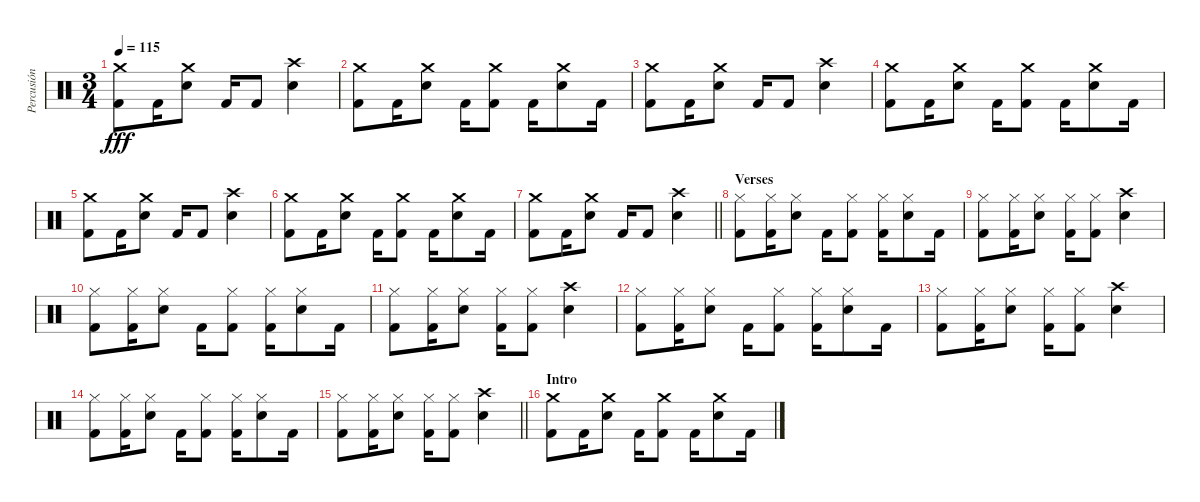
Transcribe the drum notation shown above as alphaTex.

\track ("Percusión" "Percusión") {instrument percussion}
\staff {score}
\articulation defaults
\ts (3 4)
\tempo 115
\clef neutral
\ks c
("Crash medium (hit)" "Kick (hit) 2").8{dy fff} "Kick (hit) 2".16 ("Crash medium (hit)" "Electric Snare (hit)").8 "Kick (hit) 2".16 "Kick (hit) 2".8 ("Crash high (hit)" "Electric Snare (hit)").4 |
("Crash medium (hit)" "Kick (hit) 2").8 "Kick (hit) 2".16 ("Crash medium (hit)" "Electric Snare (hit)").8 "Kick (hit) 2".16 ("Crash medium (hit)" "Kick (hit) 2").8 "Kick (hit) 2".16 ("Crash medium (hit)" "Electric Snare (hit)").8 "Kick (hit) 2".16 |
("Crash medium (hit)" "Kick (hit) 2").8 "Kick (hit) 2".16 ("Crash medium (hit)" "Electric Snare (hit)").8 "Kick (hit) 2".16 "Kick (hit) 2".8 ("Crash high (hit)" "Electric Snare (hit)").4 |
("Crash medium (hit)" "Kick (hit) 2").8 "Kick (hit) 2".16 ("Crash medium (hit)" "Electric Snare (hit)").8 "Kick (hit) 2".16 ("Crash medium (hit)" "Kick (hit) 2").8 "Kick (hit) 2".16 ("Crash medium (hit)" "Electric Snare (hit)").8 "Kick (hit) 2".16 |
("Crash medium (hit)" "Kick (hit) 2").8 "Kick (hit) 2".16 ("Crash medium (hit)" "Electric Snare (hit)").8 "Kick (hit) 2".16 "Kick (hit) 2".8 ("Crash high (hit)" "Electric Snare (hit)").4 |
("Crash medium (hit)" "Kick (hit) 2").8 "Kick (hit) 2".16 ("Crash medium (hit)" "Electric Snare (hit)").8 "Kick (hit) 2".16 ("Crash medium (hit)" "Kick (hit) 2").8 "Kick (hit) 2".16 ("Crash medium (hit)" "Electric Snare (hit)").8 "Kick (hit) 2".16 |
\barLineRight lightlight
("Crash medium (hit)" "Kick (hit) 2").8 "Kick (hit) 2".16 ("Crash medium (hit)" "Electric Snare (hit)").8 "Kick (hit) 2".16 "Kick (hit) 2".8 ("Crash high (hit)" "Electric Snare (hit)").4 |
\section ("" "Verses")
("Hi-Hat (closed)" "Kick (hit) 2").8 ("Hi-Hat (closed)" "Kick (hit) 2").16 ("Hi-Hat (closed)" "Electric Snare (hit)").8 "Kick (hit) 2".16 ("Hi-Hat (closed)" "Kick (hit) 2").8 ("Hi-Hat (closed)" "Kick (hit) 2").16 ("Hi-Hat (closed)" "Electric Snare (hit)").8 "Kick (hit) 2".16 |
("Hi-Hat (closed)" "Kick (hit) 2").8 ("Hi-Hat (closed)" "Kick (hit) 2").16 ("Hi-Hat (closed)" "Electric Snare (hit)").8 ("Hi-Hat (closed)" "Kick (hit) 2").16 ("Hi-Hat (closed)" "Kick (hit) 2").8 ("Crash high (hit)" "Electric Snare (hit)").4 |
("Hi-Hat (closed)" "Kick (hit) 2").8 ("Hi-Hat (closed)" "Kick (hit) 2").16 ("Hi-Hat (closed)" "Electric Snare (hit)").8 "Kick (hit) 2".16 ("Hi-Hat (closed)" "Kick (hit) 2").8 ("Hi-Hat (closed)" "Kick (hit) 2").16 ("Hi-Hat (closed)" "Electric Snare (hit)").8 "Kick (hit) 2".16 |
("Hi-Hat (closed)" "Kick (hit) 2").8 ("Hi-Hat (closed)" "Kick (hit) 2").16 ("Hi-Hat (closed)" "Electric Snare (hit)").8 ("Hi-Hat (closed)" "Kick (hit) 2").16 ("Hi-Hat (closed)" "Kick (hit) 2").8 ("Crash high (hit)" "Electric Snare (hit)").4 |
("Hi-Hat (closed)" "Kick (hit) 2").8 ("Hi-Hat (closed)" "Kick (hit) 2").16 ("Hi-Hat (closed)" "Electric Snare (hit)").8 "Kick (hit) 2".16 ("Hi-Hat (closed)" "Kick (hit) 2").8 ("Hi-Hat (closed)" "Kick (hit) 2").16 ("Hi-Hat (closed)" "Electric Snare (hit)").8 "Kick (hit) 2".16 |
("Hi-Hat (closed)" "Kick (hit) 2").8 ("Hi-Hat (closed)" "Kick (hit) 2").16 ("Hi-Hat (closed)" "Electric Snare (hit)").8 ("Hi-Hat (closed)" "Kick (hit) 2").16 ("Hi-Hat (closed)" "Kick (hit) 2").8 ("Crash high (hit)" "Electric Snare (hit)").4 |
("Hi-Hat (closed)" "Kick (hit) 2").8 ("Hi-Hat (closed)" "Kick (hit) 2").16 ("Hi-Hat (closed)" "Electric Snare (hit)").8 "Kick (hit) 2".16 ("Hi-Hat (closed)" "Kick (hit) 2").8 ("Hi-Hat (closed)" "Kick (hit) 2").16 ("Hi-Hat (closed)" "Electric Snare (hit)").8 "Kick (hit) 2".16 |
\barLineRight lightlight
("Hi-Hat (closed)" "Kick (hit) 2").8 ("Hi-Hat (closed)" "Kick (hit) 2").16 ("Hi-Hat (closed)" "Electric Snare (hit)").8 ("Hi-Hat (closed)" "Kick (hit) 2").16 ("Hi-Hat (closed)" "Kick (hit) 2").8 ("Crash high (hit)" "Electric Snare (hit)").4 |
\section ("" "Intro")
("Crash medium (hit)" "Kick (hit) 2").8 "Kick (hit) 2".16 ("Crash medium (hit)" "Electric Snare (hit)").8 "Kick (hit) 2".16 ("Crash medium (hit)" "Kick (hit) 2").8 "Kick (hit) 2".16 ("Crash medium (hit)" "Electric Snare (hit)").8 "Kick (hit) 2".16
